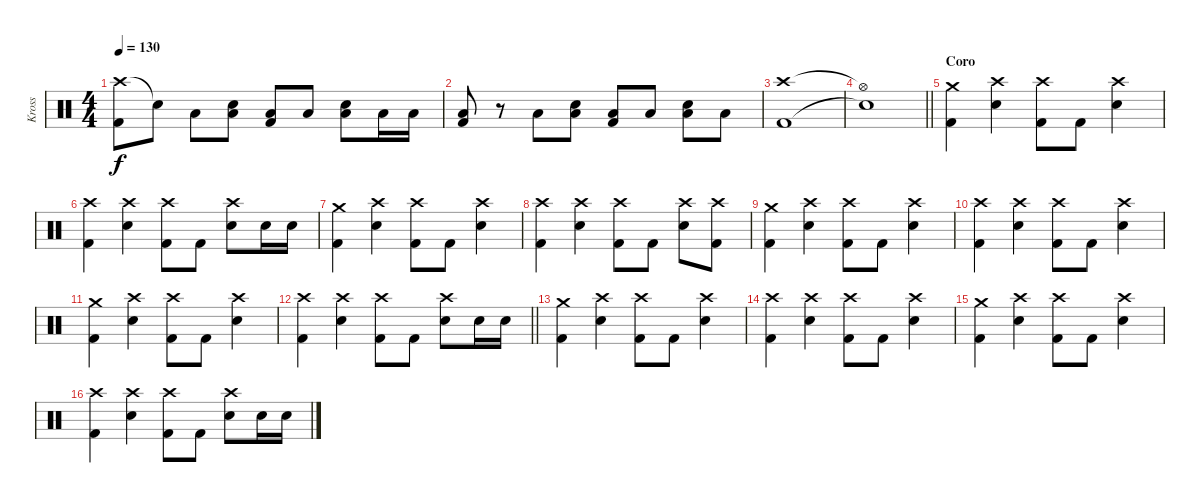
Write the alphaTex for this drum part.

\track ("Kross" "Kross") {instrument percussion}
\staff {score}
\articulation defaults
\ts (4 4)
\tempo 130
\clef neutral
\ks c
("Crash high (hit)" "Kick (hit) 2").8{dy f} "Snare (hit)"{t}.8 "Low Floor Tom (hit)".8 ("Low Floor Tom (hit)" "Electric Snare (hit)").8 ("Low Floor Tom (hit)" "Kick (hit) 2").8 "Low Floor Tom (hit)".8 ("Low Floor Tom (hit)" "Electric Snare (hit)").8 "Low Floor Tom (hit)".16 "Low Floor Tom (hit)".16 |
("Low Floor Tom (hit)" "Kick (hit) 2").8 r.8 "Low Floor Tom (hit)".8 ("Low Floor Tom (hit)" "Electric Snare (hit)").8 ("Low Floor Tom (hit)" "Kick (hit) 2").8 "Low Floor Tom (hit)".8 ("Low Floor Tom (hit)" "Electric Snare (hit)").8 "Low Floor Tom (hit)".8 |
("Crash high (hit)" "Kick (hit) 2").1 |
\barLineRight lightlight
("Hi-Hat (open)"{t} "Snare (hit)"{t}).1 |
\section ("" "Coro")
("Crash medium (hit)" "Kick (hit) 2").4 ("Crash high (hit)" "Electric Snare (hit)").4 ("Crash high (hit)" "Kick (hit) 2").8 "Kick (hit) 2".8 ("Crash high (hit)" "Electric Snare (hit)").4 |
("Crash high (hit)" "Kick (hit) 2").4 ("Crash high (hit)" "Electric Snare (hit)").4 ("Crash high (hit)" "Kick (hit) 2").8 "Kick (hit) 2".8 ("Crash high (hit)" "Electric Snare (hit)").8 "Electric Snare (hit)".16 "Electric Snare (hit)".16 |
("Crash medium (hit)" "Kick (hit) 2").4 ("Crash high (hit)" "Electric Snare (hit)").4 ("Crash high (hit)" "Kick (hit) 2").8 "Kick (hit) 2".8 ("Crash high (hit)" "Electric Snare (hit)").4 |
("Crash high (hit)" "Kick (hit) 2").4 ("Crash high (hit)" "Electric Snare (hit)").4 ("Crash high (hit)" "Kick (hit) 2").8 "Kick (hit) 2".8 ("Crash high (hit)" "Electric Snare (hit)").8 ("Crash high (hit)" "Kick (hit) 2").8 |
("Crash medium (hit)" "Kick (hit) 2").4 ("Crash high (hit)" "Electric Snare (hit)").4 ("Crash high (hit)" "Kick (hit) 2").8 "Kick (hit) 2".8 ("Crash high (hit)" "Electric Snare (hit)").4 |
("Crash high (hit)" "Kick (hit) 2").4 ("Crash high (hit)" "Electric Snare (hit)").4 ("Crash high (hit)" "Kick (hit) 2").8 "Kick (hit) 2".8 ("Crash high (hit)" "Electric Snare (hit)").4 |
("Crash medium (hit)" "Kick (hit) 2").4 ("Crash high (hit)" "Electric Snare (hit)").4 ("Crash high (hit)" "Kick (hit) 2").8 "Kick (hit) 2".8 ("Crash high (hit)" "Electric Snare (hit)").4 |
\barLineRight lightlight
("Crash high (hit)" "Kick (hit) 2").4 ("Crash high (hit)" "Electric Snare (hit)").4 ("Crash high (hit)" "Kick (hit) 2").8 "Kick (hit) 2".8 ("Crash high (hit)" "Electric Snare (hit)").8 "Electric Snare (hit)".16 "Electric Snare (hit)".16 |
("Crash medium (hit)" "Kick (hit) 2").4 ("Crash high (hit)" "Electric Snare (hit)").4 ("Crash high (hit)" "Kick (hit) 2").8 "Kick (hit) 2".8 ("Crash high (hit)" "Electric Snare (hit)").4 |
("Crash high (hit)" "Kick (hit) 2").4 ("Crash high (hit)" "Electric Snare (hit)").4 ("Crash high (hit)" "Kick (hit) 2").8 "Kick (hit) 2".8 ("Crash high (hit)" "Electric Snare (hit)").4 |
("Crash medium (hit)" "Kick (hit) 2").4 ("Crash high (hit)" "Electric Snare (hit)").4 ("Crash high (hit)" "Kick (hit) 2").8 "Kick (hit) 2".8 ("Crash high (hit)" "Electric Snare (hit)").4 |
("Crash high (hit)" "Kick (hit) 2").4 ("Crash high (hit)" "Electric Snare (hit)").4 ("Crash high (hit)" "Kick (hit) 2").8 "Kick (hit) 2".8 ("Crash high (hit)" "Electric Snare (hit)").8 "Electric Snare (hit)".16 "Electric Snare (hit)".16
